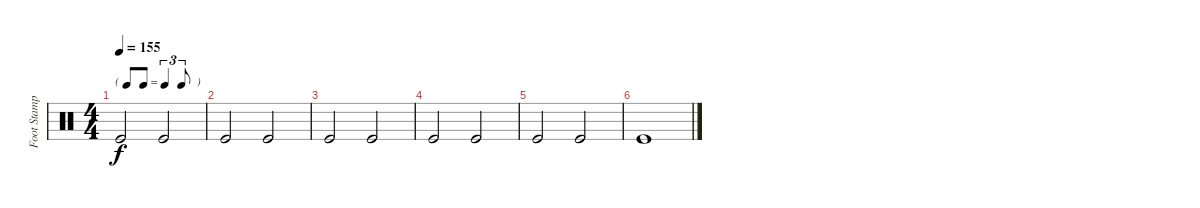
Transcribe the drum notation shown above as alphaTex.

\track ("Foot Stamp" "Foot Stamp") {instrument percussion}
\staff {score}
\articulation defaults
\ts (4 4)
\tf triplet8th
\tempo 155
\clef neutral
\ks c "Kick (hit)".2{dy f} "Kick (hit)".2
|
"Kick (hit)".2 "Kick (hit)".2 |
"Kick (hit)".2 "Kick (hit)".2 |
"Kick (hit)".2 "Kick (hit)".2 |
"Kick (hit)".2 "Kick (hit)".2 |
"Kick (hit)".1
